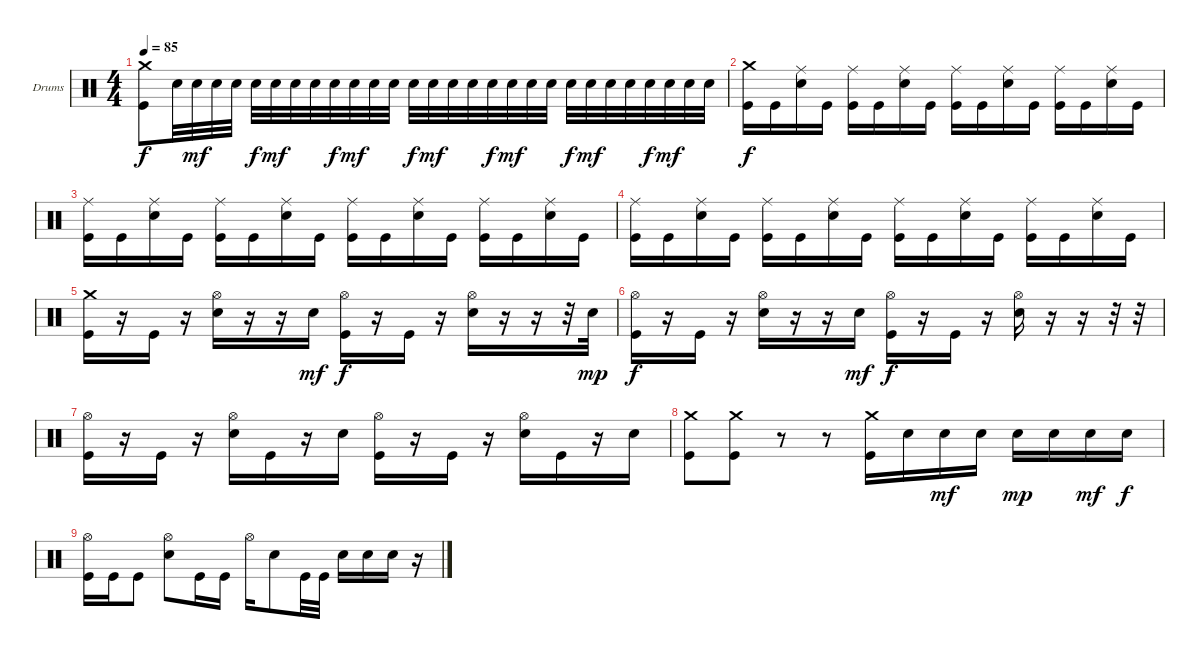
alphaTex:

\defaultSystemsLayout 4
\bracketExtendMode groupsimilarinstruments
\firstSystemTrackNameOrientation horizontal
\otherSystemsTrackNameOrientation horizontal
\track ("Drumkit" "Drums") {instrument percussion}
\staff {score}
\articulation defaults
\ts (4 4)
\tempo 85
\clef neutral
\scale
0.333333
\ks c
("Crash medium (hit)" "Kick (hit)").8{dy f} "Snare (hit) 2".32 "Snare (hit) 2".32{dy mf} "Snare (hit) 2".32 "Snare (hit) 2".32 "Snare (hit) 2".32{dy f} "Snare (hit) 2".32{dy mf} "Snare (hit) 2".32 "Snare (hit) 2".32 "Snare (hit) 2".32{dy f} "Snare (hit) 2".32{dy mf} "Snare (hit) 2".32 "Snare (hit) 2".32 "Snare (hit) 2".32{dy f} "Snare (hit) 2".32{dy mf} "Snare (hit) 2".32 "Snare (hit) 2".32 "Snare (hit) 2".32{dy f} "Snare (hit) 2".32{dy mf} "Snare (hit) 2".32 "Snare (hit) 2".32 "Snare (hit) 2".32{dy f} "Snare (hit) 2".32{dy mf} "Snare (hit) 2".32 "Snare (hit) 2".32 "Snare (hit) 2".32{dy f} "Snare (hit) 2".32{dy mf} "Snare (hit) 2".32 "Snare (hit) 2".32 |
\scale
0.333333 ("Crash medium (hit)" "Kick (hit)").16{dy f} "Kick (hit)".16 ("Ride (middle)" "Snare (hit) 2").16 "Kick (hit)".16 ("Ride (middle)" "Kick (hit)").16 "Kick (hit)".16 ("Ride (middle)" "Snare (hit) 2").16 "Kick (hit)".16 ("Ride (middle)" "Kick (hit)").16 "Kick (hit)".16 ("Ride (middle)" "Snare (hit) 2").16 "Kick (hit)".16 ("Ride (middle)" "Kick (hit)").16 "Kick (hit)".16 ("Ride (middle)" "Snare (hit) 2").16 "Kick (hit)".16 |
\scale
0.333333 ("Ride (middle)" "Kick (hit)").16 "Kick (hit)".16 ("Ride (middle)" "Snare (hit) 2").16 "Kick (hit)".16 ("Ride (middle)" "Kick (hit)").16 "Kick (hit)".16 ("Ride (middle)" "Snare (hit) 2").16 "Kick (hit)".16 ("Ride (middle)" "Kick (hit)").16 "Kick (hit)".16 ("Ride (middle)" "Snare (hit) 2").16 "Kick (hit)".16 ("Ride (middle)" "Kick (hit)").16 "Kick (hit)".16 ("Ride (middle)" "Snare (hit) 2").16 "Kick (hit)".16 |
\scale
0.333333 ("Ride (middle)" "Kick (hit)").16 "Kick (hit)".16 ("Ride (middle)" "Snare (hit) 2").16 "Kick (hit)".16 ("Ride (middle)" "Kick (hit)").16 "Kick (hit)".16 ("Ride (middle)" "Snare (hit) 2").16 "Kick (hit)".16 ("Ride (middle)" "Kick (hit)").16 "Kick (hit)".16 ("Ride (middle)" "Snare (hit) 2").16 "Kick (hit)".16 ("Ride (middle)" "Kick (hit)").16 "Kick (hit)".16 ("Ride (middle)" "Snare (hit) 2").16 "Kick (hit)".16 |
\scale
0.333333 ("Crash medium (hit)" "Kick (hit)").16 r.16 "Kick (hit)".16 r.16 ("Hi-Hat (open)" "Snare (hit) 2").16 r.16 r.16 "Snare (hit) 2".16{dy mf} ("Hi-Hat (open)" "Kick (hit)").16{dy f} r.16 "Kick (hit)".16 r.16 ("Hi-Hat (open)" "Snare (hit) 2").16 r.16 r.16 r.32 "Snare (hit) 2".32{dy mp} |
\scale
0.333333 ("Hi-Hat (open)" "Kick (hit)").16{dy f} r.16 "Kick (hit)".16 r.16 ("Hi-Hat (open)" "Snare (hit) 2").16 r.16 r.16 "Snare (hit) 2".16{dy mf} ("Hi-Hat (open)" "Kick (hit)").16{dy f} r.16 "Kick (hit)".16 r.16 ("Hi-Hat (open)" "Snare (hit) 2").16 r.16 r.16 r.32 r.32 |
\scale
0.333333 ("Hi-Hat (open)" "Kick (hit)").16 r.16 "Kick (hit)".16 r.16 ("Hi-Hat (open)" "Snare (hit) 2").16 "Kick (hit)".16 r.16 "Snare (hit) 2".16 ("Hi-Hat (open)" "Kick (hit)").16 r.16 "Kick (hit)".16 r.16 ("Hi-Hat (open)" "Snare (hit) 2").16 "Kick (hit)".16 r.16 "Snare (hit) 2".16 |
\scale
0.333333 ("Crash medium (hit)" "Kick (hit)").8 ("Crash medium (hit)" "Kick (hit)").8 r.8 r.8 ("Crash medium (hit)" "Kick (hit)").16 "Snare (hit) 2".16 "Snare (hit) 2".16{dy mf} "Snare (hit) 2".16 "Snare (hit) 2".16{dy mp} "Snare (hit) 2".16 "Snare (hit) 2".16{dy mf} "Snare (hit) 2".16{dy f} |
\scale
0.333333 ("Hi-Hat (open)" "Kick (hit)").16 "Kick (hit)".16 "Kick (hit)".8 ("Hi-Hat (open)" "Snare (hit) 2").8 "Kick (hit)".16 "Kick (hit)".16 "Hi-Hat (open)".16 "Snare (hit) 2".8 "Kick (hit)".32 "Kick (hit)".32 "Snare (hit) 2".16 "Snare (hit) 2".16 "Snare (hit) 2".16 r.16 |
\scale
0.333333 |
\scale
0.333333
